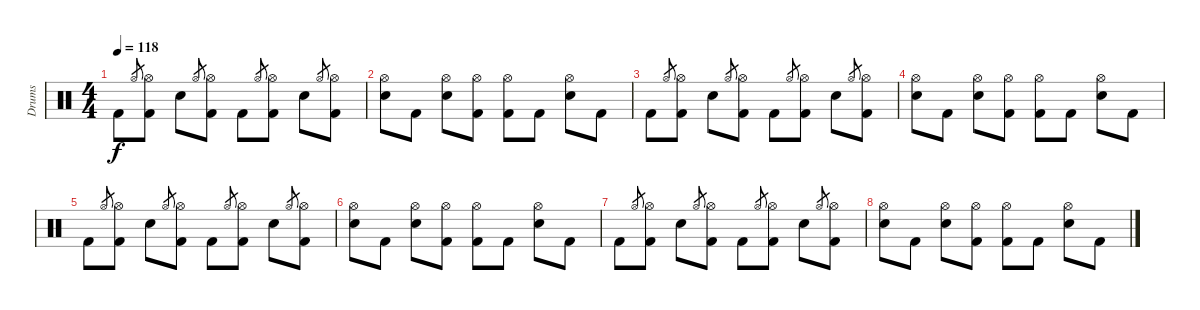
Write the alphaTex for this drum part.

\track ("Drums" "Drums") {instrument percussion}
\staff {score}
\articulation defaults
\ts (4 4)
\tempo 118
\clef neutral
\ks c "Kick (hit) 2".8{dy f} "Hi-Hat (open)".8{gr}
("Hi-Hat (open)" "Kick (hit) 2").8 "Snare (hit) 2".8 "Hi-Hat (open)".8{gr} ("Hi-Hat (open)" "Kick (hit) 2").8 "Kick (hit) 2".8 "Hi-Hat (open)".8{gr} ("Hi-Hat (open)" "Kick (hit) 2").8 "Snare (hit) 2".8 "Hi-Hat (open)".8{gr} ("Hi-Hat (open)" "Kick (hit) 2").8 |
("Hi-Hat (open)" "Snare (hit) 2").8 "Kick (hit) 2".8 ("Hi-Hat (open)" "Snare (hit) 2").8 ("Hi-Hat (open)" "Kick (hit) 2").8 ("Hi-Hat (open)" "Kick (hit) 2").8 "Kick (hit) 2".8 ("Hi-Hat (open)" "Snare (hit) 2").8 "Kick (hit) 2".8 |
"Kick (hit) 2".8 "Hi-Hat (open)".8{gr} ("Hi-Hat (open)" "Kick (hit) 2").8 "Snare (hit) 2".8 "Hi-Hat (open)".8{gr} ("Hi-Hat (open)" "Kick (hit) 2").8 "Kick (hit) 2".8 "Hi-Hat (open)".8{gr} ("Hi-Hat (open)" "Kick (hit) 2").8 "Snare (hit) 2".8 "Hi-Hat (open)".8{gr} ("Hi-Hat (open)" "Kick (hit) 2").8 |
("Hi-Hat (open)" "Snare (hit) 2").8 "Kick (hit) 2".8 ("Hi-Hat (open)" "Snare (hit) 2").8 ("Hi-Hat (open)" "Kick (hit) 2").8 ("Hi-Hat (open)" "Kick (hit) 2").8 "Kick (hit) 2".8 ("Hi-Hat (open)" "Snare (hit) 2").8 "Kick (hit) 2".8 |
"Kick (hit) 2".8 "Hi-Hat (open)".8{gr} ("Hi-Hat (open)" "Kick (hit) 2").8 "Snare (hit) 2".8 "Hi-Hat (open)".8{gr} ("Hi-Hat (open)" "Kick (hit) 2").8 "Kick (hit) 2".8 "Hi-Hat (open)".8{gr} ("Hi-Hat (open)" "Kick (hit) 2").8 "Snare (hit) 2".8 "Hi-Hat (open)".8{gr} ("Hi-Hat (open)" "Kick (hit) 2").8 |
("Hi-Hat (open)" "Snare (hit) 2").8 "Kick (hit) 2".8 ("Hi-Hat (open)" "Snare (hit) 2").8 ("Hi-Hat (open)" "Kick (hit) 2").8 ("Hi-Hat (open)" "Kick (hit) 2").8 "Kick (hit) 2".8 ("Hi-Hat (open)" "Snare (hit) 2").8 "Kick (hit) 2".8 |
"Kick (hit) 2".8 "Hi-Hat (open)".8{gr} ("Hi-Hat (open)" "Kick (hit) 2").8 "Snare (hit) 2".8 "Hi-Hat (open)".8{gr} ("Hi-Hat (open)" "Kick (hit) 2").8 "Kick (hit) 2".8 "Hi-Hat (open)".8{gr} ("Hi-Hat (open)" "Kick (hit) 2").8 "Snare (hit) 2".8 "Hi-Hat (open)".8{gr} ("Hi-Hat (open)" "Kick (hit) 2").8 |
("Hi-Hat (open)" "Snare (hit) 2").8 "Kick (hit) 2".8 ("Hi-Hat (open)" "Snare (hit) 2").8 ("Hi-Hat (open)" "Kick (hit) 2").8 ("Hi-Hat (open)" "Kick (hit) 2").8 "Kick (hit) 2".8 ("Hi-Hat (open)" "Snare (hit) 2").8 "Kick (hit) 2".8
